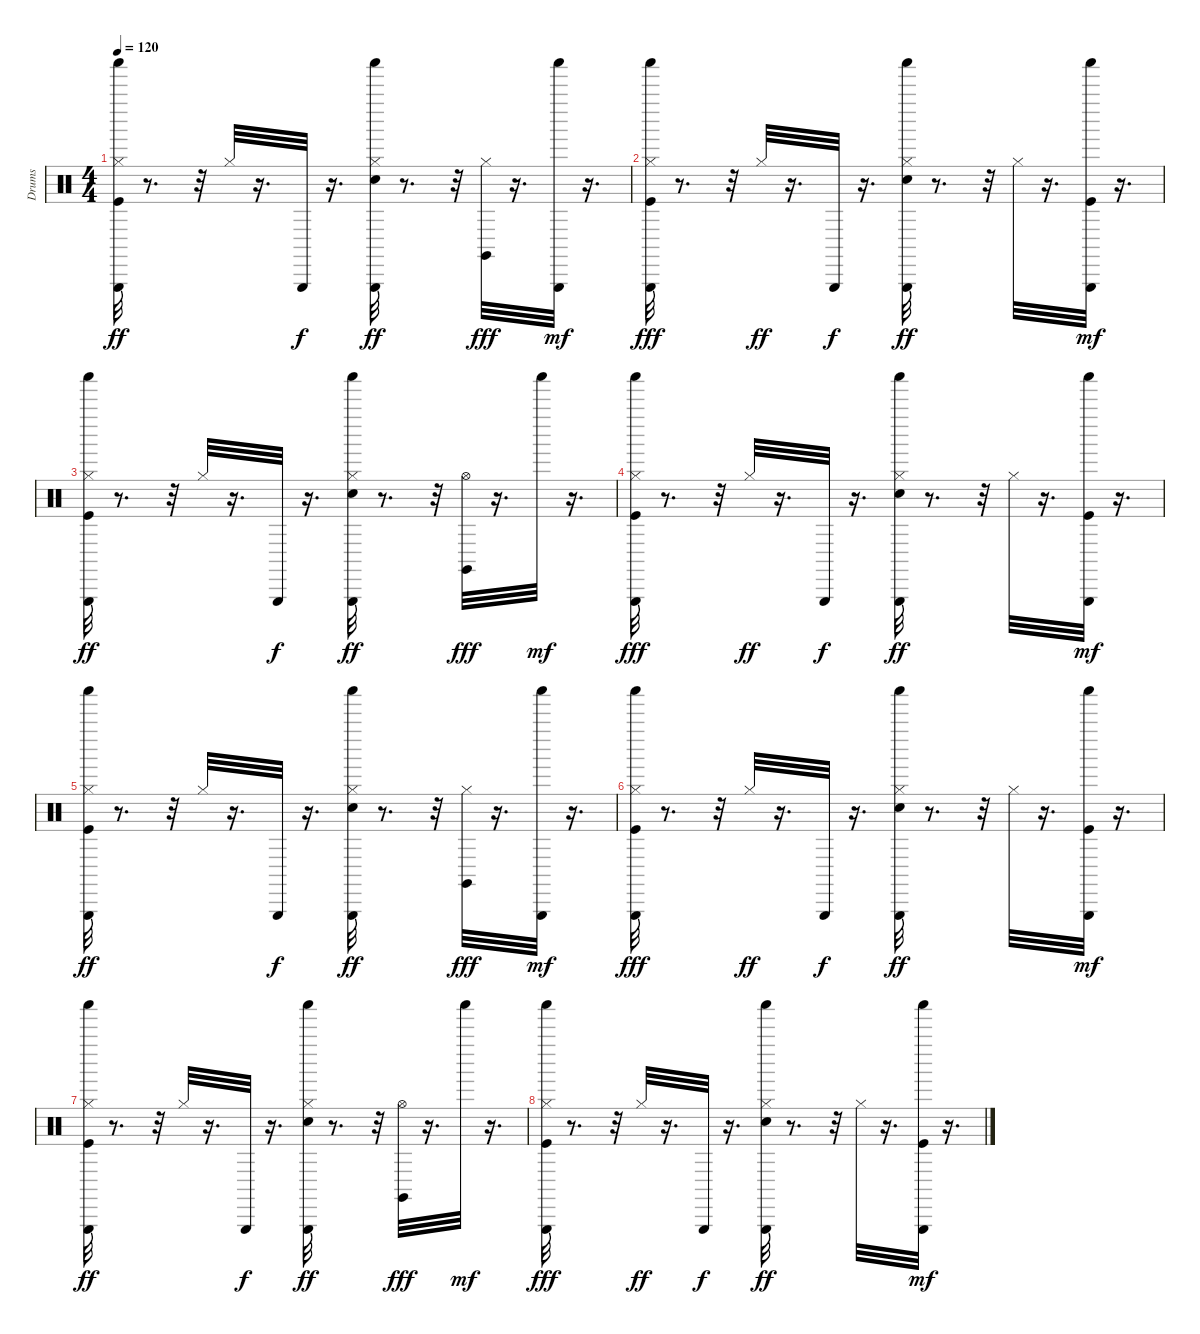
\track ("Drums" "Drums") {instrument percussion}
\staff {score}
\articulation defaults
\ts (4 4)
\tempo 120
\clef neutral
\ks c
("Shaker (hit)" "Triangle (hit)" "Kick (hit)" "Hi-Hat (closed)").32{dy ff} r.8{d} r.32 "Hi-Hat (closed)".32 r.16{d} "Triangle (hit)".32{dy f} r.16{d} ("Shaker (hit)" "Triangle (hit)" "Electric Snare (hit)" "Hi-Hat (closed)").32{dy ff} r.8{d} r.32 ("Hi-Hat (closed)" "Claves (hit)").32{dy fff} r.16{d} ("Shaker (hit)" "Triangle (hit)").32{dy mf} r.16{d} |
("Shaker (hit)" "Triangle (hit)" "Hi-Hat (closed)" "Kick (hit)").32{dy fff} r.8{d} r.32 "Hi-Hat (closed)".32{dy ff} r.16{d} "Triangle (hit)".32{dy f} r.16{d} ("Shaker (hit)" "Triangle (hit)" "Electric Snare (hit)" "Hi-Hat (closed)").32{dy ff} r.8{d} r.32 "Hi-Hat (closed)".32 r.16{d} ("Kick (hit)" "Shaker (hit)" "Triangle (hit)").32{dy mf} r.16{d} |
("Shaker (hit)" "Triangle (hit)" "Kick (hit)" "Hi-Hat (closed)").32{dy ff} r.8{d} r.32 "Hi-Hat (closed)".32 r.16{d} "Triangle (hit)".32{dy f} r.16{d} ("Shaker (hit)" "Triangle (hit)" "Electric Snare (hit)" "Hi-Hat (closed)").32{dy ff} r.8{d} r.32 ("Hi-Hat (open)" "Claves (hit)").32{dy fff} r.16{d} "Shaker (hit)".32{dy mf} r.16{d} |
("Shaker (hit)" "Triangle (hit)" "Hi-Hat (closed)" "Kick (hit)").32{dy fff} r.8{d} r.32 "Hi-Hat (closed)".32{dy ff} r.16{d} "Triangle (hit)".32{dy f} r.16{d} ("Shaker (hit)" "Triangle (hit)" "Electric Snare (hit)" "Hi-Hat (closed)").32{dy ff} r.8{d} r.32 "Hi-Hat (closed)".32 r.16{d} ("Kick (hit)" "Shaker (hit)" "Triangle (hit)").32{dy mf} r.16{d} |
("Shaker (hit)" "Triangle (hit)" "Kick (hit)" "Hi-Hat (closed)").32{dy ff} r.8{d} r.32 "Hi-Hat (closed)".32 r.16{d} "Triangle (hit)".32{dy f} r.16{d} ("Shaker (hit)" "Triangle (hit)" "Electric Snare (hit)" "Hi-Hat (closed)").32{dy ff} r.8{d} r.32 ("Hi-Hat (closed)" "Claves (hit)").32{dy fff} r.16{d} ("Shaker (hit)" "Triangle (hit)").32{dy mf} r.16{d} |
("Shaker (hit)" "Triangle (hit)" "Hi-Hat (closed)" "Kick (hit)").32{dy fff} r.8{d} r.32 "Hi-Hat (closed)".32{dy ff} r.16{d} "Triangle (hit)".32{dy f} r.16{d} ("Shaker (hit)" "Triangle (hit)" "Electric Snare (hit)" "Hi-Hat (closed)").32{dy ff} r.8{d} r.32 "Hi-Hat (closed)".32 r.16{d} ("Kick (hit)" "Shaker (hit)" "Triangle (hit)").32{dy mf} r.16{d} |
("Shaker (hit)" "Triangle (hit)" "Kick (hit)" "Hi-Hat (closed)").32{dy ff} r.8{d} r.32 "Hi-Hat (closed)".32 r.16{d} "Triangle (hit)".32{dy f} r.16{d} ("Shaker (hit)" "Triangle (hit)" "Electric Snare (hit)" "Hi-Hat (closed)").32{dy ff} r.8{d} r.32 ("Hi-Hat (open)" "Claves (hit)").32{dy fff} r.16{d} "Shaker (hit)".32{dy mf} r.16{d} |
("Shaker (hit)" "Triangle (hit)" "Hi-Hat (closed)" "Kick (hit)").32{dy fff} r.8{d} r.32 "Hi-Hat (closed)".32{dy ff} r.16{d} "Triangle (hit)".32{dy f} r.16{d} ("Shaker (hit)" "Triangle (hit)" "Electric Snare (hit)" "Hi-Hat (closed)").32{dy ff} r.8{d} r.32 "Hi-Hat (closed)".32 r.16{d} ("Kick (hit)" "Shaker (hit)" "Triangle (hit)").32{dy mf} r.16{d}
